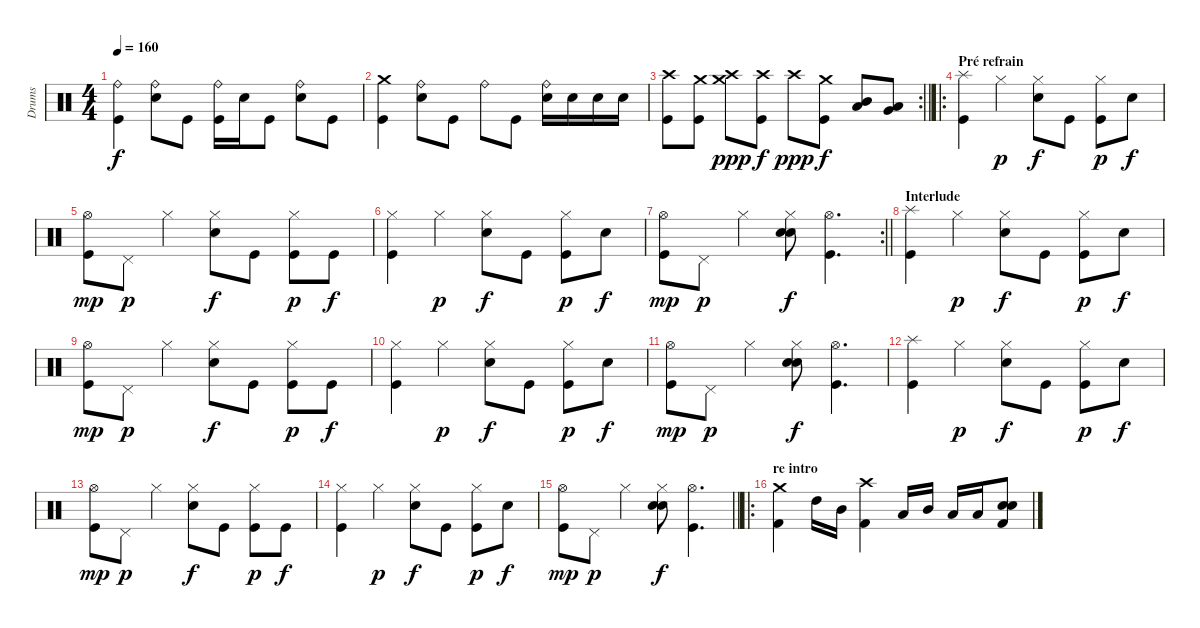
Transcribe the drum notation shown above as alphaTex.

\track ("Drums" "Drums") {instrument percussion}
\staff {score}
\articulation defaults
\ts (4 4)
\tempo 160
\clef neutral
\ks c
("Ride (bell)" "Kick (hit)").4{dy f} ("Ride (bell)" "Electric Snare (hit)").8 "Kick (hit)".8 ("Ride (bell)" "Kick (hit)").16 "Electric Snare (hit)".16 "Kick (hit)".8 ("Ride (bell)" "Electric Snare (hit)").8 "Kick (hit)".8 |
("Crash medium (hit)" "Kick (hit)").4 ("Ride (bell)" "Electric Snare (hit)").8 "Kick (hit)".8 "Ride (bell)".8 "Kick (hit)".8 ("Ride (bell)" "Electric Snare (hit)").16 "Electric Snare (hit)".16 "Electric Snare (hit)".16 "Electric Snare (hit)".16 |
\rc 2
\barLineRight lightlight
("Crash high (hit)" "Kick (hit)").8 ("Crash medium (hit)" "Kick (hit)").8 ("Crash medium (hit)" "Crash high (hit)").8{dy ppp} ("Crash high (hit)" "Kick (hit)").8{dy f} "Crash high (hit)".8{dy ppp} ("Crash medium (hit)" "Kick (hit)").8{dy f} ("Mid Tom (hit)" "Low Tom (hit)").8 ("Low Tom (hit)" "Very Low Tom (hit)").8 |
\ro
\section ("" "Pré refrain")
("Splash (hit)" "Kick (hit)").4 "Hi-Hat (closed)".4{dy p} ("Hi-Hat (closed)" "Electric Snare (hit)").8{dy f} "Kick (hit)".8 ("Hi-Hat (closed)" "Kick (hit)").8{dy p} "Electric Snare (hit)".8{dy f} |
("Hi-Hat (open)" "Kick (hit)").8{dy mp} "Pedal Hi-Hat (hit)".8{dy p} "Hi-Hat (closed)".4 ("Hi-Hat (closed)" "Electric Snare (hit)").8{dy f} "Kick (hit)".8 ("Hi-Hat (closed)" "Kick (hit)").8{dy p} "Kick (hit)".8{dy f} |
("Hi-Hat (closed)" "Kick (hit)").4 "Hi-Hat (closed)".4{dy p} ("Hi-Hat (closed)" "Electric Snare (hit)").8{dy f} "Kick (hit)".8 ("Hi-Hat (closed)" "Kick (hit)").8{dy p} "Electric Snare (hit)".8{dy f} |
\rc 2
\barLineRight lightlight
("Hi-Hat (open)" "Kick (hit)").8{dy mp} "Pedal Hi-Hat (hit)".8{dy p} "Hi-Hat (closed)".4 ("Hi-Hat (closed)" "Electric Snare (hit)" "Electric Snare (hit)").8{bd 480 dy f} ("Hi-Hat (open)" "Kick (hit)").4{d} |
\section ("" "Interlude")
("Splash (hit)" "Kick (hit)").4 "Hi-Hat (closed)".4{dy p} ("Hi-Hat (closed)" "Electric Snare (hit)").8{dy f} "Kick (hit)".8 ("Hi-Hat (closed)" "Kick (hit)").8{dy p} "Electric Snare (hit)".8{dy f} |
("Hi-Hat (open)" "Kick (hit)").8{dy mp} "Pedal Hi-Hat (hit)".8{dy p} "Hi-Hat (closed)".4 ("Hi-Hat (closed)" "Electric Snare (hit)").8{dy f} "Kick (hit)".8 ("Hi-Hat (closed)" "Kick (hit)").8{dy p} "Kick (hit)".8{dy f} |
("Hi-Hat (closed)" "Kick (hit)").4 "Hi-Hat (closed)".4{dy p} ("Hi-Hat (closed)" "Electric Snare (hit)").8{dy f} "Kick (hit)".8 ("Hi-Hat (closed)" "Kick (hit)").8{dy p} "Electric Snare (hit)".8{dy f} |
("Hi-Hat (open)" "Kick (hit)").8{dy mp} "Pedal Hi-Hat (hit)".8{dy p} "Hi-Hat (closed)".4 ("Hi-Hat (closed)" "Electric Snare (hit)" "Electric Snare (hit)").8{bd 480 dy f} ("Hi-Hat (open)" "Kick (hit)").4{d} |
("Splash (hit)" "Kick (hit)").4 "Hi-Hat (closed)".4{dy p} ("Hi-Hat (closed)" "Electric Snare (hit)").8{dy f} "Kick (hit)".8 ("Hi-Hat (closed)" "Kick (hit)").8{dy p} "Electric Snare (hit)".8{dy f} |
("Hi-Hat (open)" "Kick (hit)").8{dy mp} "Pedal Hi-Hat (hit)".8{dy p} "Hi-Hat (closed)".4 ("Hi-Hat (closed)" "Electric Snare (hit)").8{dy f} "Kick (hit)".8 ("Hi-Hat (closed)" "Kick (hit)").8{dy p} "Kick (hit)".8{dy f} |
("Hi-Hat (closed)" "Kick (hit)").4 "Hi-Hat (closed)".4{dy p} ("Hi-Hat (closed)" "Electric Snare (hit)").8{dy f} "Kick (hit)".8 ("Hi-Hat (closed)" "Kick (hit)").8{dy p} "Electric Snare (hit)".8{dy f} |
\barLineRight lightlight
("Hi-Hat (open)" "Kick (hit)").8{dy mp} "Pedal Hi-Hat (hit)".8{dy p} "Hi-Hat (closed)".4 ("Hi-Hat (closed)" "Electric Snare (hit)" "Electric Snare (hit)").8{bd 480 dy f} ("Hi-Hat (open)" "Kick (hit)").4{d} |
\ro
\section ("" "re intro")
("Crash medium (hit)" "Kick (hit) 2").4 "High Tom (hit)".16 "Mid Tom (hit)".16 ("Crash high (hit)" "Kick (hit) 2").4 "Low Tom (hit)".16 "Mid Tom (hit)".16 "Low Tom (hit)".16 "Low Tom (hit)".16 ("Electric Snare (hit)" "Electric Snare (hit)" "Kick (hit) 2").8{bd 120}
